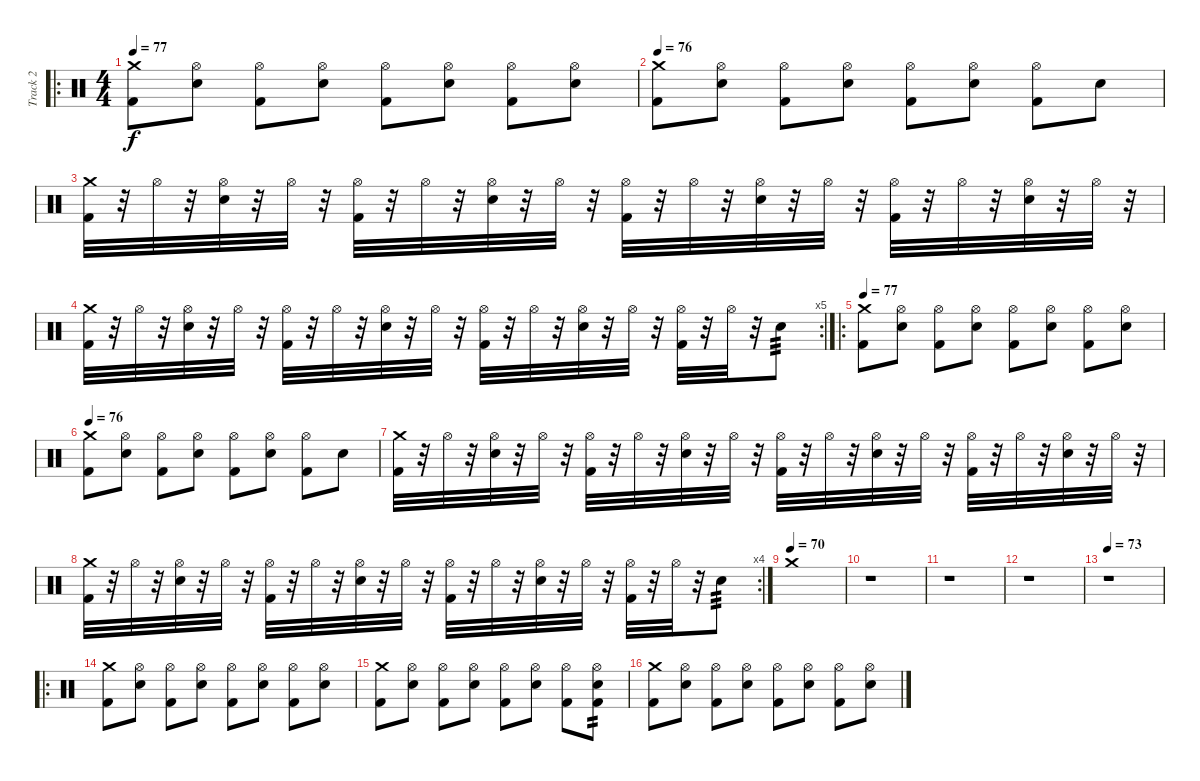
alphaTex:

\track ("Track 2" "Track 2") {instrument percussion}
\staff {score}
\articulation defaults
\ro
\ts (4 4)
\tempo 77
\clef neutral
\ks c
("Kick (hit) 2" "Crash medium (hit)").8{dy f} ("Snare (hit) 2" "Hi-Hat (open)").8 ("Kick (hit) 2" "Hi-Hat (open)").8 ("Snare (hit) 2" "Hi-Hat (open)").8 ("Kick (hit) 2" "Hi-Hat (open)").8 ("Snare (hit) 2" "Hi-Hat (open)").8 ("Kick (hit) 2" "Hi-Hat (open)").8 ("Snare (hit) 2" "Hi-Hat (open)").8 |
\tempo 76
("Kick (hit) 2" "Crash medium (hit)").8 ("Snare (hit) 2" "Hi-Hat (open)").8 ("Kick (hit) 2" "Hi-Hat (open)").8 ("Snare (hit) 2" "Hi-Hat (open)").8 ("Kick (hit) 2" "Hi-Hat (open)").8 ("Snare (hit) 2" "Hi-Hat (open)").8 ("Kick (hit) 2" "Hi-Hat (open)").8 "Snare (hit) 2".8 |
("Kick (hit) 2" "Crash medium (hit)").32 r.32 "Hi-Hat (open)".32 r.32 ("Snare (hit) 2" "Hi-Hat (open)").32 r.32 "Hi-Hat (open)".32 r.32 ("Kick (hit) 2" "Hi-Hat (open)").32 r.32 "Hi-Hat (open)".32 r.32 ("Snare (hit) 2" "Hi-Hat (open)").32 r.32 "Hi-Hat (open)".32 r.32 ("Kick (hit) 2" "Hi-Hat (open)").32 r.32 "Hi-Hat (open)".32 r.32 ("Snare (hit) 2" "Hi-Hat (open)").32 r.32 "Hi-Hat (open)".32 r.32 ("Kick (hit) 2" "Hi-Hat (open)").32 r.32 "Hi-Hat (open)".32 r.32 ("Snare (hit) 2" "Hi-Hat (open)").32 r.32 "Hi-Hat (open)".32 r.32 |
\rc 5
("Kick (hit) 2" "Crash medium (hit)").32 r.32 "Hi-Hat (open)".32 r.32 ("Snare (hit) 2" "Hi-Hat (open)").32 r.32 "Hi-Hat (open)".32 r.32 ("Kick (hit) 2" "Hi-Hat (open)").32 r.32 "Hi-Hat (open)".32 r.32 ("Snare (hit) 2" "Hi-Hat (open)").32 r.32 "Hi-Hat (open)".32 r.32 ("Kick (hit) 2" "Hi-Hat (open)").32 r.32 "Hi-Hat (open)".32 r.32 ("Snare (hit) 2" "Hi-Hat (open)").32 r.32 "Hi-Hat (open)".32 r.32 ("Kick (hit) 2" "Hi-Hat (open)").32 r.32 "Hi-Hat (open)".32 r.32 "Snare (hit) 2".8{tp 3} |
\ro
\tempo 77
("Kick (hit) 2" "Crash medium (hit)").8 ("Snare (hit) 2" "Hi-Hat (open)").8 ("Kick (hit) 2" "Hi-Hat (open)").8 ("Snare (hit) 2" "Hi-Hat (open)").8 ("Kick (hit) 2" "Hi-Hat (open)").8 ("Snare (hit) 2" "Hi-Hat (open)").8 ("Kick (hit) 2" "Hi-Hat (open)").8 ("Snare (hit) 2" "Hi-Hat (open)").8 |
\tempo 76
("Kick (hit) 2" "Crash medium (hit)").8 ("Snare (hit) 2" "Hi-Hat (open)").8 ("Kick (hit) 2" "Hi-Hat (open)").8 ("Snare (hit) 2" "Hi-Hat (open)").8 ("Kick (hit) 2" "Hi-Hat (open)").8 ("Snare (hit) 2" "Hi-Hat (open)").8 ("Kick (hit) 2" "Hi-Hat (open)").8 "Snare (hit) 2".8 |
("Kick (hit) 2" "Crash medium (hit)").32 r.32 "Hi-Hat (open)".32 r.32 ("Snare (hit) 2" "Hi-Hat (open)").32 r.32 "Hi-Hat (open)".32 r.32 ("Kick (hit) 2" "Hi-Hat (open)").32 r.32 "Hi-Hat (open)".32 r.32 ("Snare (hit) 2" "Hi-Hat (open)").32 r.32 "Hi-Hat (open)".32 r.32 ("Kick (hit) 2" "Hi-Hat (open)").32 r.32 "Hi-Hat (open)".32 r.32 ("Snare (hit) 2" "Hi-Hat (open)").32 r.32 "Hi-Hat (open)".32 r.32 ("Kick (hit) 2" "Hi-Hat (open)").32 r.32 "Hi-Hat (open)".32 r.32 ("Snare (hit) 2" "Hi-Hat (open)").32 r.32 "Hi-Hat (open)".32 r.32 |
\rc 4
("Kick (hit) 2" "Crash medium (hit)").32 r.32 "Hi-Hat (open)".32 r.32 ("Snare (hit) 2" "Hi-Hat (open)").32 r.32 "Hi-Hat (open)".32 r.32 ("Kick (hit) 2" "Hi-Hat (open)").32 r.32 "Hi-Hat (open)".32 r.32 ("Snare (hit) 2" "Hi-Hat (open)").32 r.32 "Hi-Hat (open)".32 r.32 ("Kick (hit) 2" "Hi-Hat (open)").32 r.32 "Hi-Hat (open)".32 r.32 ("Snare (hit) 2" "Hi-Hat (open)").32 r.32 "Hi-Hat (open)".32 r.32 ("Kick (hit) 2" "Hi-Hat (open)").32 r.32 "Hi-Hat (open)".32 r.32 "Snare (hit) 2".8{tp 3} |
\tempo (70)
"Crash medium (hit)".1 |
r.1 |
r.1 |
r.1 |
\tempo 73
r.1 |
\ro
("Kick (hit) 2" "Crash medium (hit)").8 ("Snare (hit) 2" "Hi-Hat (open)").8 ("Kick (hit) 2" "Hi-Hat (open)").8 ("Snare (hit) 2" "Hi-Hat (open)").8 ("Kick (hit) 2" "Hi-Hat (open)").8 ("Snare (hit) 2" "Hi-Hat (open)").8 ("Kick (hit) 2" "Hi-Hat (open)").8 ("Snare (hit) 2" "Hi-Hat (open)").8 |
("Kick (hit) 2" "Crash medium (hit)").8 ("Snare (hit) 2" "Hi-Hat (open)").8 ("Kick (hit) 2" "Hi-Hat (open)").8 ("Snare (hit) 2" "Hi-Hat (open)").8 ("Kick (hit) 2" "Hi-Hat (open)").8 ("Snare (hit) 2" "Hi-Hat (open)").8 ("Kick (hit) 2" "Hi-Hat (open)").8 ("Kick (hit) 2" "Snare (hit) 2" "Hi-Hat (open)").8{tp 2} |
("Kick (hit) 2" "Crash medium (hit)").8 ("Snare (hit) 2" "Hi-Hat (open)").8 ("Kick (hit) 2" "Hi-Hat (open)").8 ("Snare (hit) 2" "Hi-Hat (open)").8 ("Kick (hit) 2" "Hi-Hat (open)").8 ("Snare (hit) 2" "Hi-Hat (open)").8 ("Kick (hit) 2" "Hi-Hat (open)").8 ("Snare (hit) 2" "Hi-Hat (open)").8
